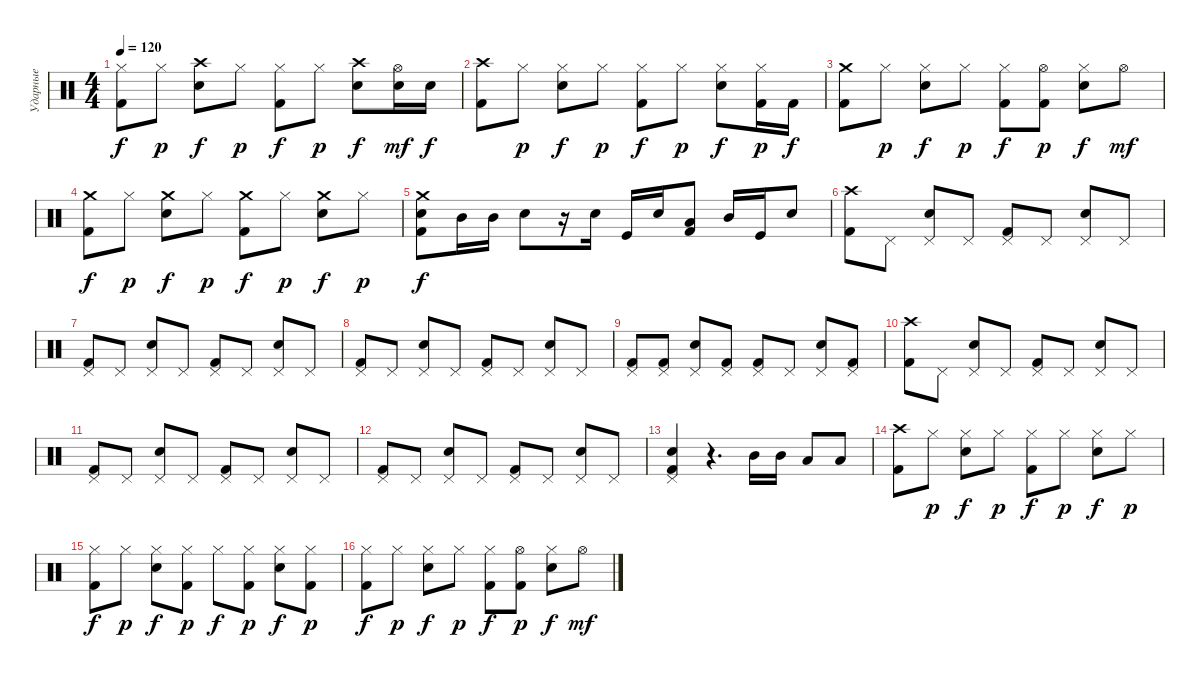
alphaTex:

\track ("Ударные" "Ударные") {instrument percussion}
\staff {score}
\articulation defaults
\ts (4 4)
\tempo 120
\clef neutral
\ks c
("Hi-Hat (closed)" "Kick (hit) 2").8{dy f} "Hi-Hat (closed)".8{dy p} ("Crash high (hit)" "Electric Snare (hit)").8{dy f} "Hi-Hat (closed)".8{dy p} ("Hi-Hat (closed)" "Kick (hit) 2").8{dy f} "Hi-Hat (closed)".8{dy p} ("Crash high (hit)" "Electric Snare (hit)").8{dy f} ("Hi-Hat (open)" "Electric Snare (hit)").16{dy mf} "Electric Snare (hit)".16{dy f} |
("Crash high (hit)" "Kick (hit) 2").8 "Hi-Hat (closed)".8{dy p} ("Hi-Hat (closed)" "Electric Snare (hit)").8{dy f} "Hi-Hat (closed)".8{dy p} ("Hi-Hat (closed)" "Kick (hit) 2").8{dy f} "Hi-Hat (closed)".8{dy p} ("Hi-Hat (closed)" "Electric Snare (hit)").8{dy f} ("Hi-Hat (closed)" "Kick (hit) 2").16{dy p} "Kick (hit) 2".16{dy f} |
("Crash medium (hit)" "Kick (hit) 2").8 "Hi-Hat (closed)".8{dy p} ("Hi-Hat (closed)" "Electric Snare (hit)").8{dy f} "Hi-Hat (closed)".8{dy p} ("Hi-Hat (closed)" "Kick (hit) 2").8{dy f} ("Hi-Hat (open)" "Kick (hit) 2").8{dy p} ("Hi-Hat (closed)" "Electric Snare (hit)").8{dy f} "Hi-Hat (open)".8{dy mf} |
("Crash medium (hit)" "Kick (hit) 2").8{dy f} "Hi-Hat (closed)".8{dy p} ("Crash medium (hit)" "Electric Snare (hit)").8{dy f} "Hi-Hat (closed)".8{dy p} ("Crash medium (hit)" "Kick (hit) 2").8{dy f} "Hi-Hat (closed)".8{dy p} ("Crash medium (hit)" "Electric Snare (hit)").8{dy f} "Hi-Hat (closed)".8{dy p} |
("Crash medium (hit)" "Electric Snare (hit)" "Kick (hit) 2").8{dy f} "Mid Tom (hit)".16 "Mid Tom (hit)".16 "Electric Snare (hit)".8 r.16 "Electric Snare (hit)".16 "Kick (hit)".16 "Electric Snare (hit)".16 ("Low Tom (hit)" "Kick (hit) 2").8 "Mid Tom (hit)".16 "Kick (hit)".16 "Electric Snare (hit)".8 |
("Crash high (hit)" "Kick (hit) 2").8 "Pedal Hi-Hat (hit)".8 ("Pedal Hi-Hat (hit)" "Electric Snare (hit)").8 "Pedal Hi-Hat (hit)".8 ("Pedal Hi-Hat (hit)" "Kick (hit) 2").8 "Pedal Hi-Hat (hit)".8 ("Pedal Hi-Hat (hit)" "Electric Snare (hit)").8 "Pedal Hi-Hat (hit)".8 |
("Pedal Hi-Hat (hit)" "Kick (hit) 2").8 "Pedal Hi-Hat (hit)".8 ("Pedal Hi-Hat (hit)" "Electric Snare (hit)").8 "Pedal Hi-Hat (hit)".8 ("Pedal Hi-Hat (hit)" "Kick (hit) 2").8 "Pedal Hi-Hat (hit)".8 ("Pedal Hi-Hat (hit)" "Electric Snare (hit)").8 "Pedal Hi-Hat (hit)".8 |
("Pedal Hi-Hat (hit)" "Kick (hit) 2").8 "Pedal Hi-Hat (hit)".8 ("Pedal Hi-Hat (hit)" "Electric Snare (hit)").8 "Pedal Hi-Hat (hit)".8 ("Pedal Hi-Hat (hit)" "Kick (hit) 2").8 "Pedal Hi-Hat (hit)".8 ("Pedal Hi-Hat (hit)" "Electric Snare (hit)").8 "Pedal Hi-Hat (hit)".8 |
("Pedal Hi-Hat (hit)" "Kick (hit) 2").8 ("Pedal Hi-Hat (hit)" "Kick (hit) 2").8 ("Pedal Hi-Hat (hit)" "Electric Snare (hit)").8 ("Pedal Hi-Hat (hit)" "Kick (hit) 2").8 ("Pedal Hi-Hat (hit)" "Kick (hit) 2").8 "Pedal Hi-Hat (hit)".8 ("Pedal Hi-Hat (hit)" "Electric Snare (hit)").8 ("Pedal Hi-Hat (hit)" "Kick (hit) 2").8 |
("Crash high (hit)" "Kick (hit) 2").8 "Pedal Hi-Hat (hit)".8 ("Pedal Hi-Hat (hit)" "Electric Snare (hit)").8 "Pedal Hi-Hat (hit)".8 ("Pedal Hi-Hat (hit)" "Kick (hit) 2").8 "Pedal Hi-Hat (hit)".8 ("Pedal Hi-Hat (hit)" "Electric Snare (hit)").8 "Pedal Hi-Hat (hit)".8 |
("Pedal Hi-Hat (hit)" "Kick (hit) 2").8 "Pedal Hi-Hat (hit)".8 ("Pedal Hi-Hat (hit)" "Electric Snare (hit)").8 "Pedal Hi-Hat (hit)".8 ("Pedal Hi-Hat (hit)" "Kick (hit) 2").8 "Pedal Hi-Hat (hit)".8 ("Pedal Hi-Hat (hit)" "Electric Snare (hit)").8 "Pedal Hi-Hat (hit)".8 |
("Pedal Hi-Hat (hit)" "Kick (hit) 2").8 "Pedal Hi-Hat (hit)".8 ("Pedal Hi-Hat (hit)" "Electric Snare (hit)").8 "Pedal Hi-Hat (hit)".8 ("Pedal Hi-Hat (hit)" "Kick (hit) 2").8 "Pedal Hi-Hat (hit)".8 ("Pedal Hi-Hat (hit)" "Electric Snare (hit)").8 "Pedal Hi-Hat (hit)".8 |
("Pedal Hi-Hat (hit)" "Electric Snare (hit)" "Kick (hit) 2").4 r.4{d} "Mid Tom (hit)".16 "Mid Tom (hit)".16 "Low Tom (hit)".8 "Low Floor Tom (hit)".8 |
("Crash high (hit)" "Kick (hit) 2").8 "Hi-Hat (closed)".8{dy p} ("Hi-Hat (closed)" "Electric Snare (hit)").8{dy f} "Hi-Hat (closed)".8{dy p} ("Hi-Hat (closed)" "Kick (hit) 2").8{dy f} "Hi-Hat (closed)".8{dy p} ("Hi-Hat (closed)" "Electric Snare (hit)").8{dy f} "Hi-Hat (closed)".8{dy p} |
("Hi-Hat (closed)" "Kick (hit) 2").8{dy f} "Hi-Hat (closed)".8{dy p} ("Hi-Hat (closed)" "Electric Snare (hit)").8{dy f} ("Hi-Hat (closed)" "Kick (hit) 2").8{dy p} "Hi-Hat (closed)".8{dy f} ("Hi-Hat (closed)" "Kick (hit) 2").8{dy p} ("Hi-Hat (closed)" "Electric Snare (hit)").8{dy f} ("Hi-Hat (closed)" "Kick (hit) 2").8{dy p} |
("Hi-Hat (closed)" "Kick (hit) 2").8{dy f} "Hi-Hat (closed)".8{dy p} ("Hi-Hat (closed)" "Electric Snare (hit)").8{dy f} "Hi-Hat (closed)".8{dy p} ("Hi-Hat (closed)" "Kick (hit) 2").8{dy f} ("Hi-Hat (open)" "Kick (hit) 2").8{dy p} ("Hi-Hat (closed)" "Electric Snare (hit)").8{dy f} "Hi-Hat (open)".8{dy mf}
